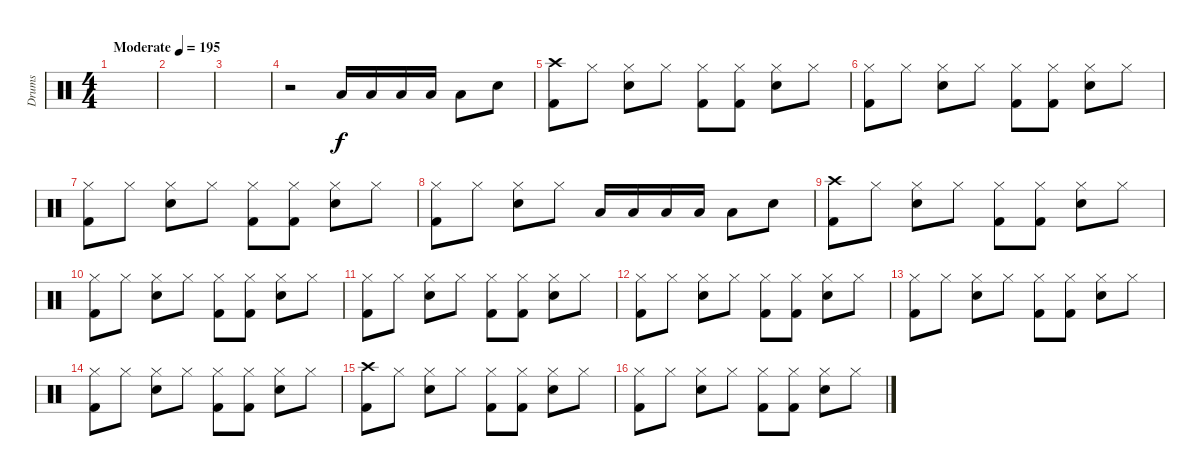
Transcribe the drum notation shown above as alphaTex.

\track ("Drums" "Drums") {instrument percussion}
\staff {score}
\articulation defaults
\ts (4 4)
\tempo (195 "Moderate")
\clef neutral
\ks c
|
|
|
r.2 "Low Tom (hit)".16 "Low Tom (hit)".16 "Low Tom (hit)".16 "Low Tom (hit)".16 "Low Tom (hit)".8 "Snare (hit) 2".8 |
("Crash high (hit)" "Kick (hit) 2").8 "Hi-Hat (closed)".8 ("Hi-Hat (closed)" "Snare (hit) 2").8 "Hi-Hat (closed)".8 ("Hi-Hat (closed)" "Kick (hit) 2").8 ("Hi-Hat (closed)" "Kick (hit) 2").8 ("Hi-Hat (closed)" "Snare (hit) 2").8 "Hi-Hat (closed)".8 |
("Hi-Hat (closed)" "Kick (hit) 2").8 "Hi-Hat (closed)".8 ("Hi-Hat (closed)" "Snare (hit) 2").8 "Hi-Hat (closed)".8 ("Hi-Hat (closed)" "Kick (hit) 2").8 ("Hi-Hat (closed)" "Kick (hit) 2").8 ("Hi-Hat (closed)" "Snare (hit) 2").8 "Hi-Hat (closed)".8 |
("Hi-Hat (closed)" "Kick (hit) 2").8 "Hi-Hat (closed)".8 ("Hi-Hat (closed)" "Snare (hit) 2").8 "Hi-Hat (closed)".8 ("Hi-Hat (closed)" "Kick (hit) 2").8 ("Hi-Hat (closed)" "Kick (hit) 2").8 ("Hi-Hat (closed)" "Snare (hit) 2").8 "Hi-Hat (closed)".8 |
("Hi-Hat (closed)" "Kick (hit) 2").8 "Hi-Hat (closed)".8 ("Hi-Hat (closed)" "Snare (hit) 2").8 "Hi-Hat (closed)".8 "Low Tom (hit)".16 "Low Tom (hit)".16 "Low Tom (hit)".16 "Low Tom (hit)".16 "Low Tom (hit)".8 "Snare (hit) 2".8 |
("Crash high (hit)" "Kick (hit) 2").8 "Hi-Hat (closed)".8 ("Hi-Hat (closed)" "Snare (hit) 2").8 "Hi-Hat (closed)".8 ("Hi-Hat (closed)" "Kick (hit) 2").8 ("Hi-Hat (closed)" "Kick (hit) 2").8 ("Hi-Hat (closed)" "Snare (hit) 2").8 "Hi-Hat (closed)".8 |
("Hi-Hat (closed)" "Kick (hit) 2").8 "Hi-Hat (closed)".8 ("Hi-Hat (closed)" "Snare (hit) 2").8 "Hi-Hat (closed)".8 ("Hi-Hat (closed)" "Kick (hit) 2").8 ("Hi-Hat (closed)" "Kick (hit) 2").8 ("Hi-Hat (closed)" "Snare (hit) 2").8 "Hi-Hat (closed)".8 |
("Hi-Hat (closed)" "Kick (hit) 2").8 "Hi-Hat (closed)".8 ("Hi-Hat (closed)" "Snare (hit) 2").8 "Hi-Hat (closed)".8 ("Hi-Hat (closed)" "Kick (hit) 2").8 ("Hi-Hat (closed)" "Kick (hit) 2").8 ("Hi-Hat (closed)" "Snare (hit) 2").8 "Hi-Hat (closed)".8 |
("Hi-Hat (closed)" "Kick (hit) 2").8 "Hi-Hat (closed)".8 ("Hi-Hat (closed)" "Snare (hit) 2").8 "Hi-Hat (closed)".8 ("Hi-Hat (closed)" "Kick (hit) 2").8 ("Hi-Hat (closed)" "Kick (hit) 2").8 ("Hi-Hat (closed)" "Snare (hit) 2").8 "Hi-Hat (closed)".8 |
("Hi-Hat (closed)" "Kick (hit) 2").8 "Hi-Hat (closed)".8 ("Hi-Hat (closed)" "Snare (hit) 2").8 "Hi-Hat (closed)".8 ("Hi-Hat (closed)" "Kick (hit) 2").8 ("Hi-Hat (closed)" "Kick (hit) 2").8 ("Hi-Hat (closed)" "Snare (hit) 2").8 "Hi-Hat (closed)".8 |
("Hi-Hat (closed)" "Kick (hit) 2").8 "Hi-Hat (closed)".8 ("Hi-Hat (closed)" "Snare (hit) 2").8 "Hi-Hat (closed)".8 ("Hi-Hat (closed)" "Kick (hit) 2").8 ("Hi-Hat (closed)" "Kick (hit) 2").8 ("Hi-Hat (closed)" "Snare (hit) 2").8 "Hi-Hat (closed)".8 |
("Crash high (hit)" "Kick (hit) 2").8 "Hi-Hat (closed)".8 ("Hi-Hat (closed)" "Snare (hit) 2").8 "Hi-Hat (closed)".8 ("Hi-Hat (closed)" "Kick (hit) 2").8 ("Hi-Hat (closed)" "Kick (hit) 2").8 ("Hi-Hat (closed)" "Snare (hit) 2").8 "Hi-Hat (closed)".8 |
("Hi-Hat (closed)" "Kick (hit) 2").8 "Hi-Hat (closed)".8 ("Hi-Hat (closed)" "Snare (hit) 2").8 "Hi-Hat (closed)".8 ("Hi-Hat (closed)" "Kick (hit) 2").8 ("Hi-Hat (closed)" "Kick (hit) 2").8 ("Hi-Hat (closed)" "Snare (hit) 2").8 "Hi-Hat (closed)".8
